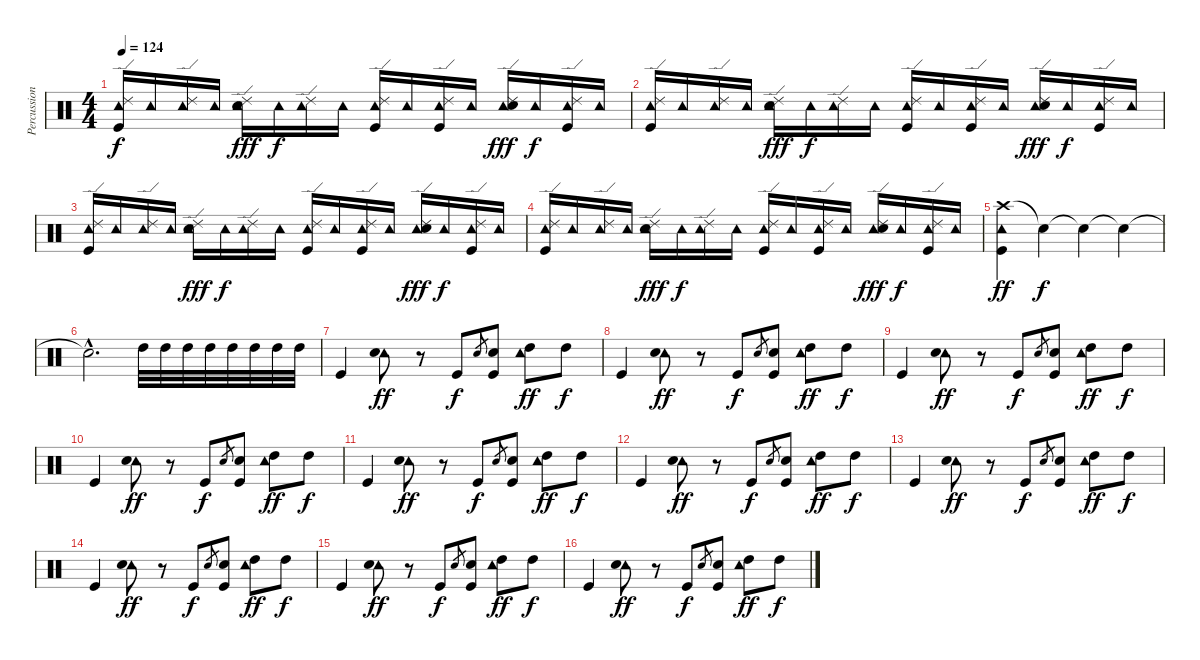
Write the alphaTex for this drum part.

\track ("Percussion" "Percussion") {instrument percussion}
\staff {score}
\articulation defaults
\ts (4 4)
\tempo 124
\clef neutral
\ks c
("Ride (edge) 2" "Tambourine (hit)" "Kick (hit)").16{dy f} "Tambourine (hit)".16 ("Ride (edge) 2" "Tambourine (hit)").16 "Tambourine (hit)".16 ("Ride (edge) 2" "Tambourine (hit)" "Snare (hit) 2").16{dy fff} "Tambourine (hit)".16{dy f} ("Ride (edge) 2" "Tambourine (hit)").16 "Tambourine (hit)".16 ("Ride (edge) 2" "Tambourine (hit)" "Kick (hit)").16 "Tambourine (hit)".16 ("Ride (edge) 2" "Tambourine (hit)" "Kick (hit)").16 "Tambourine (hit)".16 ("Ride (edge) 2" "Tambourine (hit)" "Snare (hit) 2").16{dy fff} "Tambourine (hit)".16{dy f} ("Ride (edge) 2" "Tambourine (hit)" "Kick (hit)").16 "Tambourine (hit)".16 |
("Ride (edge) 2" "Tambourine (hit)" "Kick (hit)").16 "Tambourine (hit)".16 ("Ride (edge) 2" "Tambourine (hit)").16 "Tambourine (hit)".16 ("Ride (edge) 2" "Tambourine (hit)" "Snare (hit) 2").16{dy fff} "Tambourine (hit)".16{dy f} ("Ride (edge) 2" "Tambourine (hit)").16 "Tambourine (hit)".16 ("Ride (edge) 2" "Tambourine (hit)" "Kick (hit)").16 "Tambourine (hit)".16 ("Ride (edge) 2" "Tambourine (hit)" "Kick (hit)").16 "Tambourine (hit)".16 ("Ride (edge) 2" "Tambourine (hit)" "Snare (hit) 2").16{dy fff} "Tambourine (hit)".16{dy f} ("Ride (edge) 2" "Tambourine (hit)" "Kick (hit)").16 "Tambourine (hit)".16 |
("Ride (edge) 2" "Tambourine (hit)" "Kick (hit)").16 "Tambourine (hit)".16 ("Ride (edge) 2" "Tambourine (hit)").16 "Tambourine (hit)".16 ("Ride (edge) 2" "Tambourine (hit)" "Snare (hit) 2").16{dy fff} "Tambourine (hit)".16{dy f} ("Ride (edge) 2" "Tambourine (hit)").16 "Tambourine (hit)".16 ("Ride (edge) 2" "Tambourine (hit)" "Kick (hit)").16 "Tambourine (hit)".16 ("Ride (edge) 2" "Tambourine (hit)" "Kick (hit)").16 "Tambourine (hit)".16 ("Ride (edge) 2" "Tambourine (hit)" "Snare (hit) 2").16{dy fff} "Tambourine (hit)".16{dy f} ("Ride (edge) 2" "Tambourine (hit)" "Kick (hit)").16 "Tambourine (hit)".16 |
("Ride (edge) 2" "Tambourine (hit)" "Kick (hit)").16 "Tambourine (hit)".16 ("Ride (edge) 2" "Tambourine (hit)").16 "Tambourine (hit)".16 ("Ride (edge) 2" "Tambourine (hit)" "Snare (hit) 2").16{dy fff} "Tambourine (hit)".16{dy f} ("Ride (edge) 2" "Tambourine (hit)").16 "Tambourine (hit)".16 ("Ride (edge) 2" "Tambourine (hit)" "Kick (hit)").16 "Tambourine (hit)".16 ("Ride (edge) 2" "Tambourine (hit)" "Kick (hit)").16 "Tambourine (hit)".16 ("Ride (edge) 2" "Tambourine (hit)" "Snare (hit) 2").16{dy fff} "Tambourine (hit)".16{dy f} ("Ride (edge) 2" "Tambourine (hit)" "Kick (hit)").16 "Tambourine (hit)".16 |
("Crash high (hit)" "Tambourine (hit)" "Kick (hit)").4{dy ff} "Snare (hit)"{t}.4{dy f} "Snare (hit)"{t}.4 "Snare (hit)"{t}.4 |
"Snare (hit)"{hac t}.2{d} "High Tom (hit)".32 "High Tom (hit)".32 "High Tom (hit)".32 "High Tom (hit)".32 "High Tom (hit)".32 "High Tom (hit)".32 "High Tom (hit)".32 "High Tom (hit)".32 |
"Kick (hit)".4 ("Tambourine (hit)" "Snare (hit) 2").8{dy ff} r.8 "Kick (hit)".8{dy f} "Snare (hit) 2".8{gr} ("Snare (hit) 2" "Kick (hit)").8 ("Tambourine (hit)" "High Tom (hit)").8{dy ff} "High Tom (hit)".8{dy f} |
"Kick (hit)".4 ("Tambourine (hit)" "Snare (hit) 2").8{dy ff} r.8 "Kick (hit)".8{dy f} "Snare (hit) 2".8{gr} ("Snare (hit) 2" "Kick (hit)").8 ("Tambourine (hit)" "High Tom (hit)").8{dy ff} "High Tom (hit)".8{dy f} |
"Kick (hit)".4 ("Tambourine (hit)" "Snare (hit) 2").8{dy ff} r.8 "Kick (hit)".8{dy f} "Snare (hit) 2".8{gr} ("Snare (hit) 2" "Kick (hit)").8 ("Tambourine (hit)" "High Tom (hit)").8{dy ff} "High Tom (hit)".8{dy f} |
"Kick (hit)".4 ("Tambourine (hit)" "Snare (hit) 2").8{dy ff} r.8 "Kick (hit)".8{dy f} "Snare (hit) 2".8{gr} ("Snare (hit) 2" "Kick (hit)").8 ("Tambourine (hit)" "High Tom (hit)").8{dy ff} "High Tom (hit)".8{dy f} |
"Kick (hit)".4 ("Tambourine (hit)" "Snare (hit) 2").8{dy ff} r.8 "Kick (hit)".8{dy f} "Snare (hit) 2".8{gr} ("Snare (hit) 2" "Kick (hit)").8 ("Tambourine (hit)" "High Tom (hit)").8{dy ff} "High Tom (hit)".8{dy f} |
"Kick (hit)".4 ("Tambourine (hit)" "Snare (hit) 2").8{dy ff} r.8 "Kick (hit)".8{dy f} "Snare (hit) 2".8{gr} ("Snare (hit) 2" "Kick (hit)").8 ("Tambourine (hit)" "High Tom (hit)").8{dy ff} "High Tom (hit)".8{dy f} |
"Kick (hit)".4 ("Tambourine (hit)" "Snare (hit) 2").8{dy ff} r.8 "Kick (hit)".8{dy f} "Snare (hit) 2".8{gr} ("Snare (hit) 2" "Kick (hit)").8 ("Tambourine (hit)" "High Tom (hit)").8{dy ff} "High Tom (hit)".8{dy f} |
"Kick (hit)".4 ("Tambourine (hit)" "Snare (hit) 2").8{dy ff} r.8 "Kick (hit)".8{dy f} "Snare (hit) 2".8{gr} ("Snare (hit) 2" "Kick (hit)").8 ("Tambourine (hit)" "High Tom (hit)").8{dy ff} "High Tom (hit)".8{dy f} |
"Kick (hit)".4 ("Tambourine (hit)" "Snare (hit) 2").8{dy ff} r.8 "Kick (hit)".8{dy f} "Snare (hit) 2".8{gr} ("Snare (hit) 2" "Kick (hit)").8 ("Tambourine (hit)" "High Tom (hit)").8{dy ff} "High Tom (hit)".8{dy f} |
"Kick (hit)".4 ("Tambourine (hit)" "Snare (hit) 2").8{dy ff} r.8 "Kick (hit)".8{dy f} "Snare (hit) 2".8{gr} ("Snare (hit) 2" "Kick (hit)").8 ("Tambourine (hit)" "High Tom (hit)").8{dy ff} "High Tom (hit)".8{dy f}
